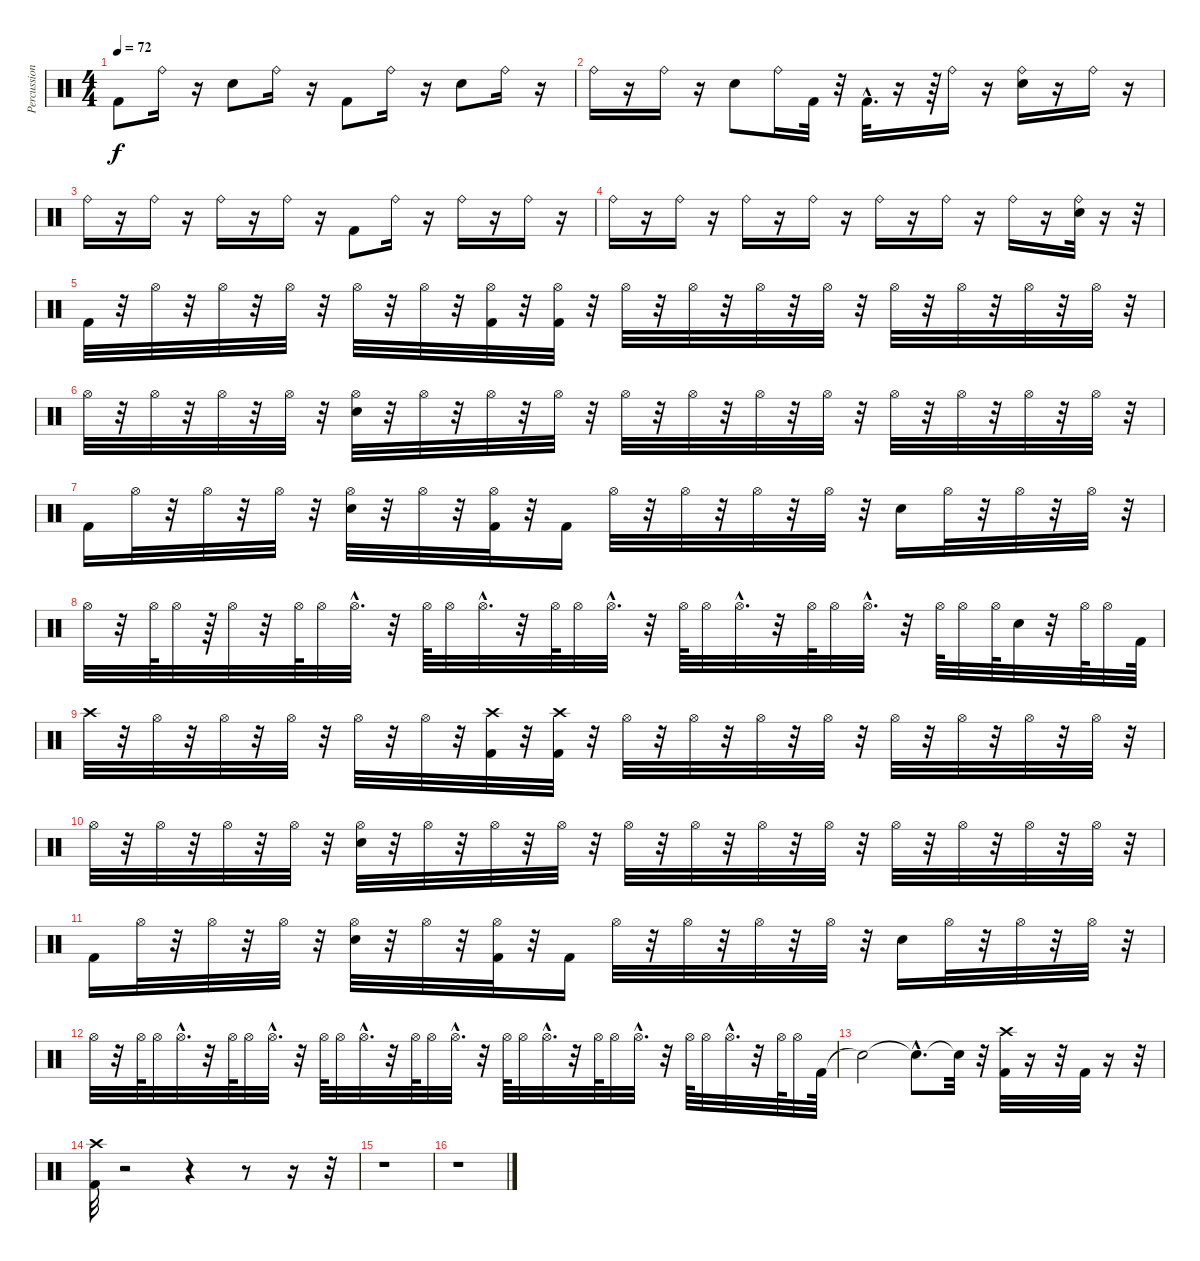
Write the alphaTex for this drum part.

\track ("Percussions" "Percussion") {instrument percussion}
\staff {score}
\articulation defaults
\ts (4 4)
\tempo 72
\clef neutral
\ks c "Kick (hit) 2".8{dy f} "Ride (bell)".16
r.16 "Snare (hit) 2".8 "Ride (bell)".16 r.16 "Kick (hit) 2".8 "Ride (bell)".16 r.16 "Snare (hit) 2".8 "Ride (bell)".16 r.16 |
"Ride (bell)".16 r.16 "Ride (bell)".16 r.16 "Snare (hit) 2".8 "Ride (bell)".16 "Kick (hit) 2".32 r.32 "Kick (hit) 2"{hac}.32{d} r.16 r.64 "Ride (bell)".16 r.16 ("Snare (hit) 2" "Ride (bell)").16 r.16 "Ride (bell)".16 r.16 |
"Ride (bell)".16 r.16 "Ride (bell)".16 r.16 "Ride (bell)".16 r.16 "Ride (bell)".16 r.16 "Kick (hit) 2".8 "Ride (bell)".16 r.16 "Ride (bell)".16 r.16 "Ride (bell)".16 r.16 |
"Ride (bell)".16 r.16 "Ride (bell)".16 r.16 "Ride (bell)".16 r.16 "Ride (bell)".16 r.16 "Ride (bell)".16 r.16 "Ride (bell)".16 r.16 "Ride (bell)".16 r.16 ("Snare (hit) 2" "Ride (bell)").32 r.16 r.32 |
"Kick (hit) 2".32 r.32 "Hi-Hat (open)".32 r.32 "Hi-Hat (open)".32 r.32 "Hi-Hat (open)".32 r.32 "Hi-Hat (open)".32 r.32 "Hi-Hat (open)".32 r.32 ("Hi-Hat (open)" "Kick (hit) 2").32 r.32 ("Hi-Hat (open)" "Kick (hit) 2").32 r.32 "Hi-Hat (open)".32 r.32 "Hi-Hat (open)".32 r.32 "Hi-Hat (open)".32 r.32 "Hi-Hat (open)".32 r.32 "Hi-Hat (open)".32 r.32 "Hi-Hat (open)".32 r.32 "Hi-Hat (open)".32 r.32 "Hi-Hat (open)".32 r.32 |
"Hi-Hat (open)".32 r.32 "Hi-Hat (open)".32 r.32 "Hi-Hat (open)".32 r.32 "Hi-Hat (open)".32 r.32 ("Snare (hit) 2" "Hi-Hat (open)").32 r.32 "Hi-Hat (open)".32 r.32 "Hi-Hat (open)".32 r.32 "Hi-Hat (open)".32 r.32 "Hi-Hat (open)".32 r.32 "Hi-Hat (open)".32 r.32 "Hi-Hat (open)".32 r.32 "Hi-Hat (open)".32 r.32 "Hi-Hat (open)".32 r.32 "Hi-Hat (open)".32 r.32 "Hi-Hat (open)".32 r.32 "Hi-Hat (open)".32 r.32 |
"Kick (hit) 2".16 "Hi-Hat (open)".32 r.32 "Hi-Hat (open)".32 r.32 "Hi-Hat (open)".32 r.32 ("Snare (hit) 2" "Hi-Hat (open)").32 r.32 "Hi-Hat (open)".32 r.32 ("Hi-Hat (open)" "Kick (hit) 2").32 r.32 "Kick (hit) 2".16 "Hi-Hat (open)".32 r.32 "Hi-Hat (open)".32 r.32 "Hi-Hat (open)".32 r.32 "Hi-Hat (open)".32 r.32 "Snare (hit) 2".16 "Hi-Hat (open)".32 r.32 "Hi-Hat (open)".32 r.32 "Hi-Hat (open)".32 r.32 |
"Hi-Hat (open)".32 r.32 "Hi-Hat (open)".64 "Hi-Hat (open)".32 r.64 "Hi-Hat (open)".32 r.32 "Hi-Hat (open)".64 "Hi-Hat (open)".32 "Hi-Hat (open)"{hac}.32{d} r.32 "Hi-Hat (open)".64 "Hi-Hat (open)".32 "Hi-Hat (open)"{hac}.32{d} r.32 "Hi-Hat (open)".64 "Hi-Hat (open)".32 "Hi-Hat (open)"{hac}.32{d} r.32 "Hi-Hat (open)".64 "Hi-Hat (open)".32 "Hi-Hat (open)"{hac}.32{d} r.32 "Hi-Hat (open)".64 "Hi-Hat (open)".32 "Hi-Hat (open)"{hac}.32{d} r.32 "Hi-Hat (open)".64 "Hi-Hat (open)".32 "Hi-Hat (open)".64 "Snare (hit) 2".32 r.32 "Hi-Hat (open)".64 "Hi-Hat (open)".32 "Kick (hit) 2".64 |
"Crash high (hit)".32 r.32 "Hi-Hat (open)".32 r.32 "Hi-Hat (open)".32 r.32 "Hi-Hat (open)".32 r.32 "Hi-Hat (open)".32 r.32 "Hi-Hat (open)".32 r.32 ("Crash high (hit)" "Kick (hit) 2").32 r.32 ("Crash high (hit)" "Kick (hit) 2").32 r.32 "Hi-Hat (open)".32 r.32 "Hi-Hat (open)".32 r.32 "Hi-Hat (open)".32 r.32 "Hi-Hat (open)".32 r.32 "Hi-Hat (open)".32 r.32 "Hi-Hat (open)".32 r.32 "Hi-Hat (open)".32 r.32 "Hi-Hat (open)".32 r.32 |
"Hi-Hat (open)".32 r.32 "Hi-Hat (open)".32 r.32 "Hi-Hat (open)".32 r.32 "Hi-Hat (open)".32 r.32 ("Snare (hit) 2" "Hi-Hat (open)").32 r.32 "Hi-Hat (open)".32 r.32 "Hi-Hat (open)".32 r.32 "Hi-Hat (open)".32 r.32 "Hi-Hat (open)".32 r.32 "Hi-Hat (open)".32 r.32 "Hi-Hat (open)".32 r.32 "Hi-Hat (open)".32 r.32 "Hi-Hat (open)".32 r.32 "Hi-Hat (open)".32 r.32 "Hi-Hat (open)".32 r.32 "Hi-Hat (open)".32 r.32 |
"Kick (hit) 2".16 "Hi-Hat (open)".32 r.32 "Hi-Hat (open)".32 r.32 "Hi-Hat (open)".32 r.32 ("Snare (hit) 2" "Hi-Hat (open)").32 r.32 "Hi-Hat (open)".32 r.32 ("Hi-Hat (open)" "Kick (hit) 2").32 r.32 "Kick (hit) 2".16 "Hi-Hat (open)".32 r.32 "Hi-Hat (open)".32 r.32 "Hi-Hat (open)".32 r.32 "Hi-Hat (open)".32 r.32 "Snare (hit) 2".16 "Hi-Hat (open)".32 r.32 "Hi-Hat (open)".32 r.32 "Hi-Hat (open)".32 r.32 |
"Hi-Hat (open)".32 r.32 "Hi-Hat (open)".64 "Hi-Hat (open)".32 "Hi-Hat (open)"{hac}.32{d} r.32 "Hi-Hat (open)".64 "Hi-Hat (open)".32 "Hi-Hat (open)"{hac}.32{d} r.32 "Hi-Hat (open)".64 "Hi-Hat (open)".32 "Hi-Hat (open)"{hac}.32{d} r.32 "Hi-Hat (open)".64 "Hi-Hat (open)".32 "Hi-Hat (open)"{hac}.32{d} r.32 "Hi-Hat (open)".64 "Hi-Hat (open)".32 "Hi-Hat (open)"{hac}.32{d} r.32 "Hi-Hat (open)".64 "Hi-Hat (open)".32 "Hi-Hat (open)"{hac}.32{d} r.32 "Hi-Hat (open)".64 "Hi-Hat (open)".32 "Hi-Hat (open)"{hac}.32{d} r.32 "Hi-Hat (open)".64 "Hi-Hat (open)".32 "Kick (hit) 2".64 |
"Snare (hit)"{t}.2 "Snare (hit)"{hac t}.8{d} "Snare (hit)"{t}.32 r.32 ("Crash high (hit)" "Kick (hit) 2").32 r.16 r.32 "Kick (hit) 2".32 r.16 r.32 |
("Crash high (hit)" "Kick (hit) 2").32 r.2 r.4 r.8 r.16 r.32 |
r.1 |
r.1
